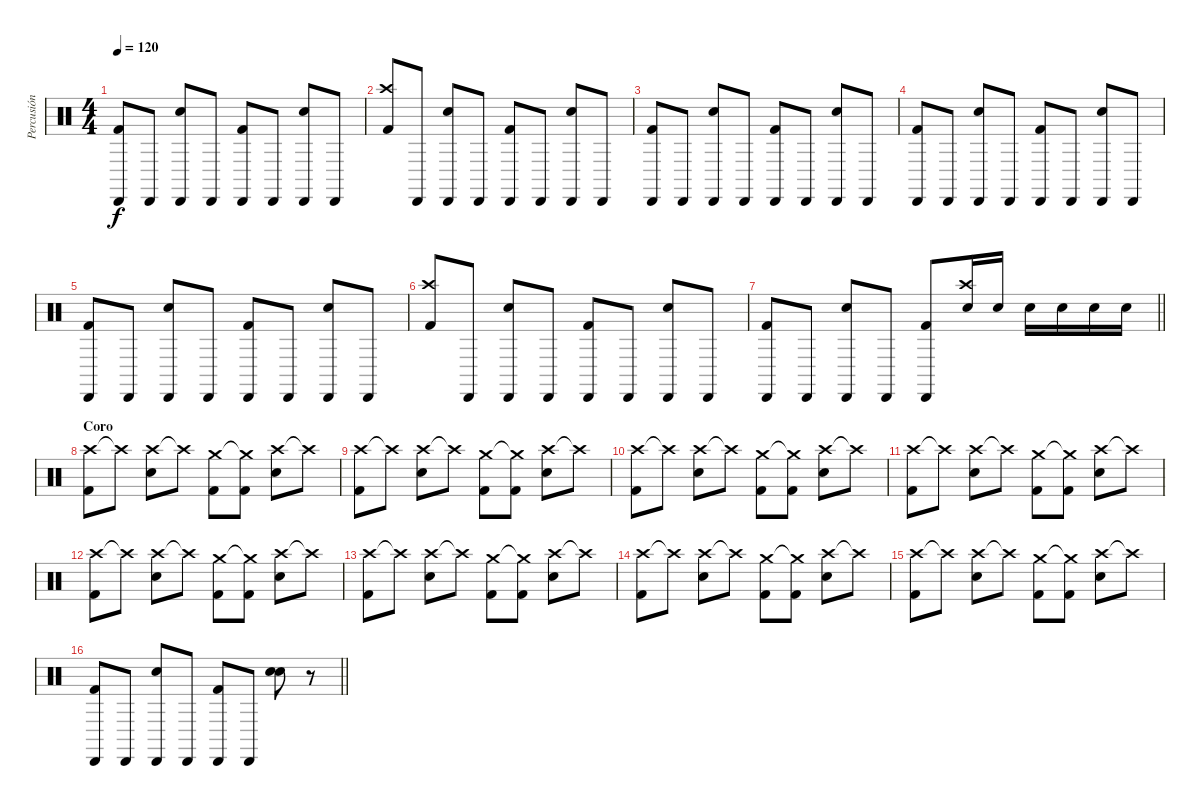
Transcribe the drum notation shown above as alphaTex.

\track ("Percusión" "Percusión") {instrument percussion}
\staff {score}
\articulation defaults
\ts (4 4)
\tempo 120
\clef neutral
\ks c
("Cabasa (hit)" "Kick (hit) 2").8{dy f} "Cabasa (hit)".8 ("Cabasa (hit)" "Snare (hit) 2").8 "Cabasa (hit)".8 ("Cabasa (hit)" "Kick (hit) 2").8 "Cabasa (hit)".8 ("Cabasa (hit)" "Snare (hit) 2").8 "Cabasa (hit)".8 |
("Crash high (hit)" "Kick (hit) 2").8 "Cabasa (hit)".8 ("Cabasa (hit)" "Snare (hit) 2").8 "Cabasa (hit)".8 ("Cabasa (hit)" "Kick (hit) 2").8 "Cabasa (hit)".8 ("Cabasa (hit)" "Snare (hit) 2").8 "Cabasa (hit)".8 |
("Cabasa (hit)" "Kick (hit) 2").8 "Cabasa (hit)".8 ("Cabasa (hit)" "Snare (hit) 2").8 "Cabasa (hit)".8 ("Cabasa (hit)" "Kick (hit) 2").8 "Cabasa (hit)".8 ("Cabasa (hit)" "Snare (hit) 2").8 "Cabasa (hit)".8 |
("Cabasa (hit)" "Kick (hit) 2").8 "Cabasa (hit)".8 ("Cabasa (hit)" "Snare (hit) 2").8 "Cabasa (hit)".8 ("Cabasa (hit)" "Kick (hit) 2").8 "Cabasa (hit)".8 ("Cabasa (hit)" "Snare (hit) 2").8 "Cabasa (hit)".8 |
("Cabasa (hit)" "Kick (hit) 2").8 "Cabasa (hit)".8 ("Cabasa (hit)" "Snare (hit) 2").8 "Cabasa (hit)".8 ("Cabasa (hit)" "Kick (hit) 2").8 "Cabasa (hit)".8 ("Cabasa (hit)" "Snare (hit) 2").8 "Cabasa (hit)".8 |
("Crash high (hit)" "Kick (hit) 2").8 "Cabasa (hit)".8 ("Cabasa (hit)" "Snare (hit) 2").8 "Cabasa (hit)".8 ("Cabasa (hit)" "Kick (hit) 2").8 "Cabasa (hit)".8 ("Cabasa (hit)" "Snare (hit) 2").8 "Cabasa (hit)".8 |
\barLineRight lightlight
("Cabasa (hit)" "Kick (hit) 2").8 "Cabasa (hit)".8 ("Cabasa (hit)" "Snare (hit) 2").8 "Cabasa (hit)".8 ("Cabasa (hit)" "Kick (hit) 2").8 ("Crash high (hit)" "Snare (hit) 2").16 "Snare (hit) 2".16 "Snare (hit) 2".16 "Snare (hit) 2".16 "Snare (hit) 2".16 "Snare (hit) 2".16 |
\section ("" "Coro")
("Crash high (hit)" "Kick (hit) 2").8 "Crash high (hit)"{t}.8 ("Crash high (hit)" "Snare (hit) 2").8 "Crash high (hit)"{t}.8 ("Crash medium (hit)" "Kick (hit) 2").8 ("Crash medium (hit)"{t} "Kick (hit) 2").8 ("Crash high (hit)" "Snare (hit) 2").8 "Crash high (hit)"{t}.8 |
("Crash high (hit)" "Kick (hit) 2").8 "Crash high (hit)"{t}.8 ("Crash high (hit)" "Snare (hit) 2").8 "Crash high (hit)"{t}.8 ("Crash medium (hit)" "Kick (hit) 2").8 ("Crash medium (hit)"{t} "Kick (hit) 2").8 ("Crash high (hit)" "Snare (hit) 2").8 "Crash high (hit)"{t}.8 |
("Crash high (hit)" "Kick (hit) 2").8 "Crash high (hit)"{t}.8 ("Crash high (hit)" "Snare (hit) 2").8 "Crash high (hit)"{t}.8 ("Crash medium (hit)" "Kick (hit) 2").8 ("Crash medium (hit)"{t} "Kick (hit) 2").8 ("Crash high (hit)" "Snare (hit) 2").8 "Crash high (hit)"{t}.8 |
("Crash high (hit)" "Kick (hit) 2").8 "Crash high (hit)"{t}.8 ("Crash high (hit)" "Snare (hit) 2").8 "Crash high (hit)"{t}.8 ("Crash medium (hit)" "Kick (hit) 2").8 ("Crash medium (hit)"{t} "Kick (hit) 2").8 ("Crash high (hit)" "Snare (hit) 2").8 "Crash high (hit)"{t}.8 |
("Crash high (hit)" "Kick (hit) 2").8 "Crash high (hit)"{t}.8 ("Crash high (hit)" "Snare (hit) 2").8 "Crash high (hit)"{t}.8 ("Crash medium (hit)" "Kick (hit) 2").8 ("Crash medium (hit)"{t} "Kick (hit) 2").8 ("Crash high (hit)" "Snare (hit) 2").8 "Crash high (hit)"{t}.8 |
("Crash high (hit)" "Kick (hit) 2").8 "Crash high (hit)"{t}.8 ("Crash high (hit)" "Snare (hit) 2").8 "Crash high (hit)"{t}.8 ("Crash medium (hit)" "Kick (hit) 2").8 ("Crash medium (hit)"{t} "Kick (hit) 2").8 ("Crash high (hit)" "Snare (hit) 2").8 "Crash high (hit)"{t}.8 |
("Crash high (hit)" "Kick (hit) 2").8 "Crash high (hit)"{t}.8 ("Crash high (hit)" "Snare (hit) 2").8 "Crash high (hit)"{t}.8 ("Crash medium (hit)" "Kick (hit) 2").8 ("Crash medium (hit)"{t} "Kick (hit) 2").8 ("Crash high (hit)" "Snare (hit) 2").8 "Crash high (hit)"{t}.8 |
("Crash high (hit)" "Kick (hit) 2").8 "Crash high (hit)"{t}.8 ("Crash high (hit)" "Snare (hit) 2").8 "Crash high (hit)"{t}.8 ("Crash medium (hit)" "Kick (hit) 2").8 ("Crash medium (hit)"{t} "Kick (hit) 2").8 ("Crash high (hit)" "Snare (hit) 2").8 "Crash high (hit)"{t}.8 |
\barLineRight lightlight
("Cabasa (hit)" "Kick (hit) 2").8 "Cabasa (hit)".8 ("Cabasa (hit)" "Snare (hit) 2").8 "Cabasa (hit)".8 ("Cabasa (hit)" "Kick (hit) 2").8 "Cabasa (hit)".8 ("Snare (hit) 2" "Snare (hit) 2").8 r.8
